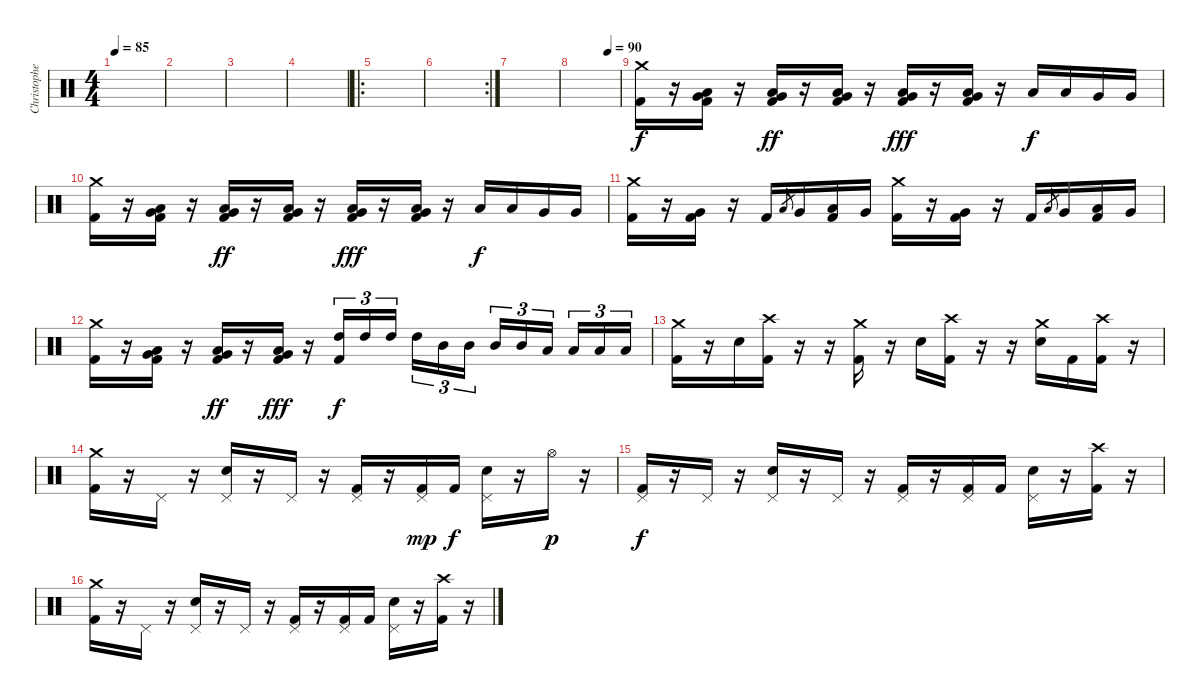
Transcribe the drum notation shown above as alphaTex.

\track ("Christopher Kinder" "Christophe") {instrument percussion}
\staff {score}
\articulation defaults
\ts (4 4)
\tempo 85
\clef neutral
\ks c
|
|
|
|
\ro
|
\rc 2
|
|
\tempo (90 0.75)
|
("Crash medium (hit)" "Kick (hit) 2").16 r.16 ("Very Low Tom (hit)" "Low Tom (hit)" "Kick (hit) 2").16 r.16 ("Very Low Tom (hit)" "Low Tom (hit)" "Kick (hit) 2").16{dy ff} r.16 ("Very Low Tom (hit)" "Low Tom (hit)" "Kick (hit) 2").16 r.16 ("Very Low Tom (hit)" "Low Tom (hit)" "Kick (hit) 2").16{dy fff} r.16 ("Very Low Tom (hit)" "Low Tom (hit)" "Kick (hit) 2").16 r.16 "Low Tom (hit)".16{dy f} "Low Tom (hit)".16 "Very Low Tom (hit)".16 "Very Low Tom (hit)".16 |
("Crash medium (hit)" "Kick (hit) 2").16 r.16 ("Very Low Tom (hit)" "Low Tom (hit)" "Kick (hit) 2").16 r.16 ("Very Low Tom (hit)" "Low Tom (hit)" "Kick (hit) 2").16{dy ff} r.16 ("Very Low Tom (hit)" "Low Tom (hit)" "Kick (hit) 2").16 r.16 ("Very Low Tom (hit)" "Low Tom (hit)" "Kick (hit) 2").16{dy fff} r.16 ("Very Low Tom (hit)" "Low Tom (hit)" "Kick (hit) 2").16 r.16 "Low Tom (hit)".16{dy f} "Low Tom (hit)".16 "Very Low Tom (hit)".16 "Very Low Tom (hit)".16 |
("Crash medium (hit)" "Kick (hit) 2").16 r.16 ("Very Low Tom (hit)" "Kick (hit) 2").16 r.16 "Kick (hit) 2".16 "Low Tom (hit)".8{gr} "Very Low Tom (hit)".16 ("Low Tom (hit)" "Kick (hit) 2").16 "Very Low Tom (hit)".16 ("Crash medium (hit)" "Kick (hit) 2").16 r.16 ("Very Low Tom (hit)" "Kick (hit) 2").16 r.16 "Kick (hit) 2".16 "Low Tom (hit)".8{gr} "Very Low Tom (hit)".16 ("Low Tom (hit)" "Kick (hit) 2").16 "Very Low Tom (hit)".16 |
("Crash medium (hit)" "Kick (hit) 2").16 r.16 ("Low Tom (hit)" "Very Low Tom (hit)" "Kick (hit) 2").16 r.16 ("Low Tom (hit)" "Very Low Tom (hit)" "Kick (hit) 2").16{dy ff} r.16 ("Low Tom (hit)" "Very Low Tom (hit)" "Kick (hit) 2").16{dy fff} r.16 ("High Tom (hit)" "Kick (hit) 2").16{tu (3 2) dy f} "High Tom (hit)".16{tu (3 2)} "High Tom (hit)".16{tu (3 2)} "High Tom (hit)".16{tu (3 2)} "Mid Tom (hit)".16{tu (3 2)} "Mid Tom (hit)".16{tu (3 2)} "Mid Tom (hit)".16{tu (3 2)} "Mid Tom (hit)".16{tu (3 2)} "Low Tom (hit)".16{tu (3 2)} "Low Tom (hit)".16{tu (3 2)} "Low Tom (hit)".16{tu (3 2)} "Low Tom (hit)".16{tu (3 2)} |
("Crash medium (hit)" "Kick (hit) 2").16 r.16 "Electric Snare (hit)".16 ("Crash high (hit)" "Kick (hit) 2").16 r.16 r.16 ("Crash medium (hit)" "Kick (hit) 2").16 r.16 "Electric Snare (hit)".16 ("Crash high (hit)" "Kick (hit) 2").16 r.16 r.16 ("Crash medium (hit)" "Electric Snare (hit)").16 "Kick (hit) 2".16 ("Crash high (hit)" "Kick (hit) 2").16 r.16 |
("Crash medium (hit)" "Kick (hit) 2").16 r.16 "Pedal Hi-Hat (hit)".16 r.16 ("Pedal Hi-Hat (hit)" "Electric Snare (hit)").16 r.16 "Pedal Hi-Hat (hit)".16 r.16 ("Pedal Hi-Hat (hit)" "Kick (hit) 2").16 r.16 ("Pedal Hi-Hat (hit)" "Kick (hit) 2").16{dy mp} "Kick (hit) 2".16{dy f} ("Pedal Hi-Hat (hit)" "Electric Snare (hit)").16 r.16 "Hi-Hat (open)".16{dy p} r.16 |
("Pedal Hi-Hat (hit)" "Kick (hit) 2").16{dy f} r.16 "Pedal Hi-Hat (hit)".16 r.16 ("Pedal Hi-Hat (hit)" "Electric Snare (hit)").16 r.16 "Pedal Hi-Hat (hit)".16 r.16 ("Pedal Hi-Hat (hit)" "Kick (hit) 2").16 r.16 ("Pedal Hi-Hat (hit)" "Kick (hit) 2").16 "Kick (hit) 2".16 ("Pedal Hi-Hat (hit)" "Electric Snare (hit)").16 r.16 ("Crash high (hit)" "Kick (hit) 2").16 r.16 |
("Crash medium (hit)" "Kick (hit) 2").16 r.16 "Pedal Hi-Hat (hit)".16 r.16 ("Pedal Hi-Hat (hit)" "Electric Snare (hit)").16 r.16 "Pedal Hi-Hat (hit)".16 r.16 ("Pedal Hi-Hat (hit)" "Kick (hit) 2").16 r.16 ("Pedal Hi-Hat (hit)" "Kick (hit) 2").16 "Kick (hit) 2".16 ("Pedal Hi-Hat (hit)" "Electric Snare (hit)").16 r.16 ("Crash high (hit)" "Kick (hit) 2").16 r.16
